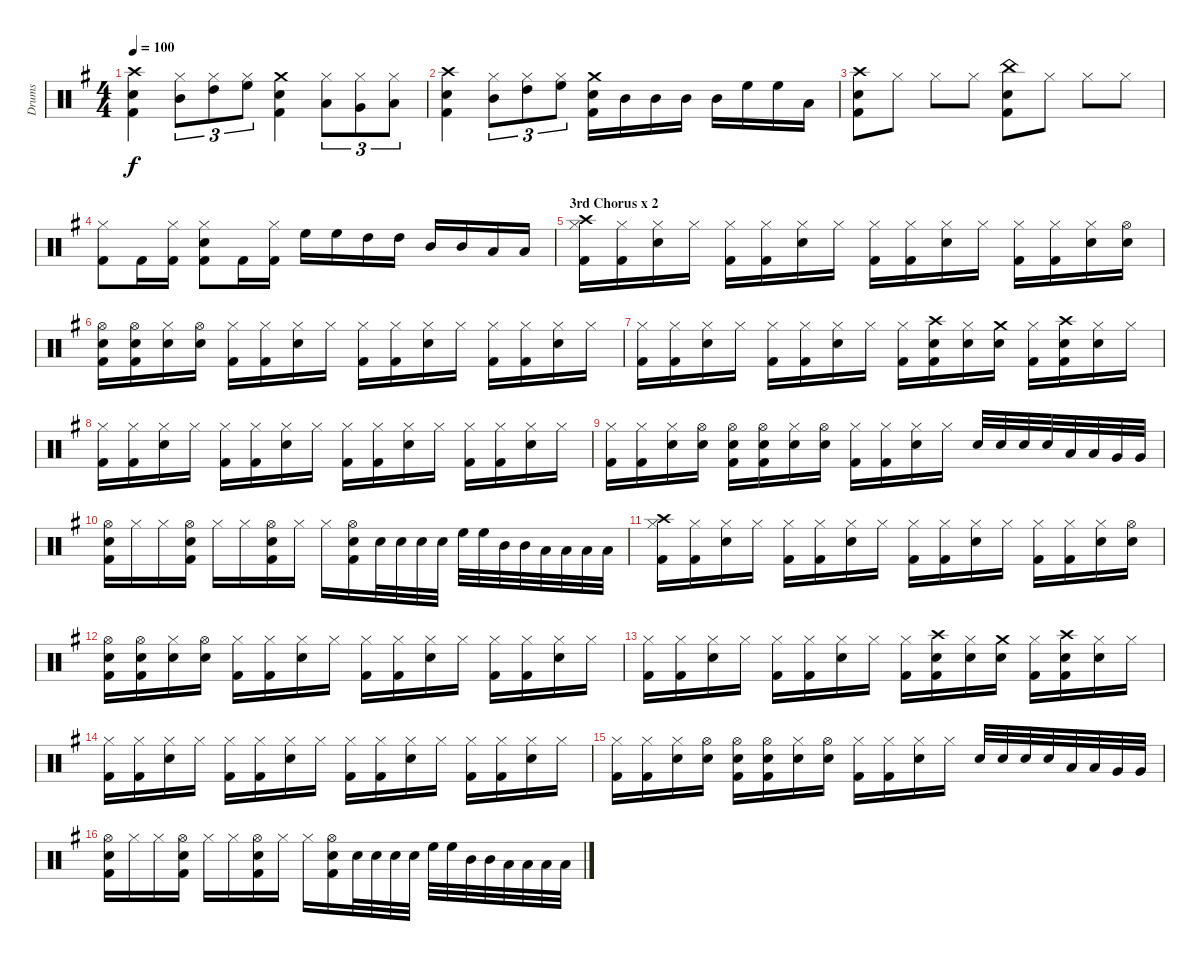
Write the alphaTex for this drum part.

\track ("Drums" "Drums") {instrument percussion}
\staff {score}
\articulation defaults
\ts (4 4)
\tempo 100
\clef neutral
\ks eminor
("Crash high (hit)" "Snare (hit) 2" "Kick (hit) 2").4{dy f} ("Hi-Hat (closed)" "Mid Tom (hit)").8{tu (3 2)} ("Hi-Hat (closed)" "High Tom (hit)").8{tu (3 2)} ("Hi-Hat (closed)" "High Floor Tom (hit)").8{tu (3 2)} ("Crash medium (hit)" "Snare (hit) 2" "Kick (hit) 2").4 ("Hi-Hat (closed)" "Low Floor Tom (hit)").8{tu (3 2)} ("Hi-Hat (closed)" "Very Low Tom (hit)").8{tu (3 2)} ("Hi-Hat (closed)" "Low Tom (hit)").8{tu (3 2)} |
("Crash high (hit)" "Snare (hit) 2" "Kick (hit) 2").4 ("Hi-Hat (closed)" "Mid Tom (hit)").8{tu (3 2)} ("Hi-Hat (closed)" "High Tom (hit)").8{tu (3 2)} ("Hi-Hat (closed)" "High Floor Tom (hit)").8{tu (3 2)} ("Crash medium (hit)" "Snare (hit) 2" "Kick (hit) 2").16 "Mid Tom (hit)".16 "Mid Tom (hit)".16 "Mid Tom (hit)".16 "Mid Tom (hit)".16 "High Floor Tom (hit)".16 "High Floor Tom (hit)".16 "Low Tom (hit)".16 |
("Crash high (hit)" "Snare (hit) 2" "Kick (hit) 2").8 "Hi-Hat (closed)".8 "Hi-Hat (closed)".8 "Hi-Hat (closed)".8 ("China (hit)" "Snare (hit) 2" "Kick (hit) 2").8 "Hi-Hat (closed)".8 "Hi-Hat (closed)".8 "Hi-Hat (closed)".8 |
("Hi-Hat (closed)" "Kick (hit) 2").8 "Kick (hit) 2".16 ("Hi-Hat (closed)" "Kick (hit) 2").16 ("Hi-Hat (closed)" "Kick (hit) 2" "Snare (hit) 2").8 "Kick (hit) 2".16 ("Hi-Hat (closed)" "Kick (hit) 2").16 "High Floor Tom (hit)".16 "High Floor Tom (hit)".16 "High Tom (hit)".16 "High Tom (hit)".16 "Mid Tom (hit)".16 "Mid Tom (hit)".16 "Low Tom (hit)".16 "Low Tom (hit)".16 |
\section ("" "3rd Chorus x 2")
("Hi-Hat (closed)" "Crash high (hit)" "Kick (hit) 2").16 ("Hi-Hat (closed)" "Kick (hit) 2").16 ("Hi-Hat (closed)" "Snare (hit) 2").16 "Hi-Hat (closed)".16 ("Hi-Hat (closed)" "Kick (hit) 2").16 ("Hi-Hat (closed)" "Kick (hit) 2").16 ("Hi-Hat (closed)" "Snare (hit) 2").16 "Hi-Hat (closed)".16 ("Hi-Hat (closed)" "Kick (hit) 2").16 ("Hi-Hat (closed)" "Kick (hit) 2").16 ("Hi-Hat (closed)" "Snare (hit) 2").16 "Hi-Hat (closed)".16 ("Hi-Hat (closed)" "Kick (hit) 2").16 ("Hi-Hat (closed)" "Kick (hit) 2").16 ("Hi-Hat (closed)" "Snare (hit) 2").16 ("Hi-Hat (open)" "Snare (hit) 2").16 |
("Hi-Hat (open)" "Snare (hit) 2" "Kick (hit) 2").16 ("Hi-Hat (open)" "Snare (hit) 2" "Kick (hit) 2").16 ("Hi-Hat (closed)" "Snare (hit) 2").16 ("Hi-Hat (open)" "Snare (hit) 2").16 ("Hi-Hat (closed)" "Kick (hit) 2").16 ("Hi-Hat (closed)" "Kick (hit) 2").16 ("Hi-Hat (closed)" "Snare (hit) 2").16 "Hi-Hat (closed)".16 ("Hi-Hat (closed)" "Kick (hit) 2").16 ("Hi-Hat (closed)" "Kick (hit) 2").16 ("Hi-Hat (closed)" "Snare (hit) 2").16 "Hi-Hat (closed)".16 ("Hi-Hat (closed)" "Kick (hit) 2").16 ("Hi-Hat (closed)" "Kick (hit) 2").16 ("Hi-Hat (closed)" "Snare (hit) 2").16 "Hi-Hat (closed)".16 |
("Hi-Hat (closed)" "Kick (hit) 2").16 ("Hi-Hat (closed)" "Kick (hit) 2").16 ("Hi-Hat (closed)" "Snare (hit) 2").16 "Hi-Hat (closed)".16 ("Hi-Hat (closed)" "Kick (hit) 2").16 ("Hi-Hat (closed)" "Kick (hit) 2").16 ("Hi-Hat (closed)" "Snare (hit) 2").16 "Hi-Hat (closed)".16 ("Hi-Hat (closed)" "Kick (hit) 2").16 ("Crash high (hit)" "Snare (hit) 2" "Kick (hit) 2").16 ("Hi-Hat (closed)" "Snare (hit) 2").16 ("Crash medium (hit)" "Snare (hit) 2").16 ("Hi-Hat (closed)" "Kick (hit) 2").16 ("Crash high (hit)" "Snare (hit) 2" "Kick (hit) 2").16 ("Hi-Hat (closed)" "Snare (hit) 2").16 "Hi-Hat (closed)".16 |
("Hi-Hat (closed)" "Kick (hit) 2").16 ("Hi-Hat (closed)" "Kick (hit) 2").16 ("Hi-Hat (closed)" "Snare (hit) 2").16 "Hi-Hat (closed)".16 ("Hi-Hat (closed)" "Kick (hit) 2").16 ("Hi-Hat (closed)" "Kick (hit) 2").16 ("Hi-Hat (closed)" "Snare (hit) 2").16 "Hi-Hat (closed)".16 ("Hi-Hat (closed)" "Kick (hit) 2").16 ("Hi-Hat (closed)" "Kick (hit) 2").16 ("Hi-Hat (closed)" "Snare (hit) 2").16 "Hi-Hat (closed)".16 ("Hi-Hat (closed)" "Kick (hit) 2").16 ("Hi-Hat (closed)" "Kick (hit) 2").16 ("Hi-Hat (closed)" "Snare (hit) 2").16 "Hi-Hat (closed)".16 |
("Hi-Hat (closed)" "Kick (hit) 2").16 ("Hi-Hat (closed)" "Kick (hit) 2").16 ("Hi-Hat (closed)" "Snare (hit) 2").16 ("Hi-Hat (open)" "Snare (hit) 2").16 ("Hi-Hat (open)" "Snare (hit) 2" "Kick (hit) 2").16 ("Hi-Hat (open)" "Snare (hit) 2" "Kick (hit) 2").16 ("Hi-Hat (closed)" "Snare (hit) 2").16 ("Hi-Hat (open)" "Snare (hit) 2").16 ("Hi-Hat (closed)" "Kick (hit) 2").16 ("Hi-Hat (closed)" "Kick (hit) 2").16 ("Hi-Hat (closed)" "Snare (hit) 2").16 "Hi-Hat (closed)".16 "Snare (hit) 2".32 "Snare (hit) 2".32 "Snare (hit) 2".32 "Snare (hit) 2".32 "Low Floor Tom (hit)".32 "Low Floor Tom (hit)".32 "Very Low Tom (hit)".32 "Very Low Tom (hit)".32 |
("Hi-Hat (open)" "Snare (hit) 2" "Kick (hit) 2").16 "Hi-Hat (closed)".16 "Hi-Hat (closed)".16 ("Hi-Hat (open)" "Snare (hit) 2" "Kick (hit) 2").16 "Hi-Hat (closed)".16 "Hi-Hat (closed)".16 ("Hi-Hat (open)" "Snare (hit) 2" "Kick (hit) 2").16 "Hi-Hat (closed)".16 "Hi-Hat (closed)".16 ("Hi-Hat (open)" "Snare (hit) 2" "Kick (hit) 2").16 "Snare (hit) 2".32 "Snare (hit) 2".32 "Snare (hit) 2".32 "Snare (hit) 2".32 "High Floor Tom (hit)".32 "High Floor Tom (hit)".32 "Mid Tom (hit)".32 "Mid Tom (hit)".32 "Low Tom (hit)".32 "Low Tom (hit)".32 "Low Floor Tom (hit)".32 "Low Floor Tom (hit)".32 |
("Hi-Hat (closed)" "Crash high (hit)" "Kick (hit) 2").16 ("Hi-Hat (closed)" "Kick (hit) 2").16 ("Hi-Hat (closed)" "Snare (hit) 2").16 "Hi-Hat (closed)".16 ("Hi-Hat (closed)" "Kick (hit) 2").16 ("Hi-Hat (closed)" "Kick (hit) 2").16 ("Hi-Hat (closed)" "Snare (hit) 2").16 "Hi-Hat (closed)".16 ("Hi-Hat (closed)" "Kick (hit) 2").16 ("Hi-Hat (closed)" "Kick (hit) 2").16 ("Hi-Hat (closed)" "Snare (hit) 2").16 "Hi-Hat (closed)".16 ("Hi-Hat (closed)" "Kick (hit) 2").16 ("Hi-Hat (closed)" "Kick (hit) 2").16 ("Hi-Hat (closed)" "Snare (hit) 2").16 ("Hi-Hat (open)" "Snare (hit) 2").16 |
("Hi-Hat (open)" "Snare (hit) 2" "Kick (hit) 2").16 ("Hi-Hat (open)" "Snare (hit) 2" "Kick (hit) 2").16 ("Hi-Hat (closed)" "Snare (hit) 2").16 ("Hi-Hat (open)" "Snare (hit) 2").16 ("Hi-Hat (closed)" "Kick (hit) 2").16 ("Hi-Hat (closed)" "Kick (hit) 2").16 ("Hi-Hat (closed)" "Snare (hit) 2").16 "Hi-Hat (closed)".16 ("Hi-Hat (closed)" "Kick (hit) 2").16 ("Hi-Hat (closed)" "Kick (hit) 2").16 ("Hi-Hat (closed)" "Snare (hit) 2").16 "Hi-Hat (closed)".16 ("Hi-Hat (closed)" "Kick (hit) 2").16 ("Hi-Hat (closed)" "Kick (hit) 2").16 ("Hi-Hat (closed)" "Snare (hit) 2").16 "Hi-Hat (closed)".16 |
("Hi-Hat (closed)" "Kick (hit) 2").16 ("Hi-Hat (closed)" "Kick (hit) 2").16 ("Hi-Hat (closed)" "Snare (hit) 2").16 "Hi-Hat (closed)".16 ("Hi-Hat (closed)" "Kick (hit) 2").16 ("Hi-Hat (closed)" "Kick (hit) 2").16 ("Hi-Hat (closed)" "Snare (hit) 2").16 "Hi-Hat (closed)".16 ("Hi-Hat (closed)" "Kick (hit) 2").16 ("Crash high (hit)" "Snare (hit) 2" "Kick (hit) 2").16 ("Hi-Hat (closed)" "Snare (hit) 2").16 ("Crash medium (hit)" "Snare (hit) 2").16 ("Hi-Hat (closed)" "Kick (hit) 2").16 ("Crash high (hit)" "Snare (hit) 2" "Kick (hit) 2").16 ("Hi-Hat (closed)" "Snare (hit) 2").16 "Hi-Hat (closed)".16 |
("Hi-Hat (closed)" "Kick (hit) 2").16 ("Hi-Hat (closed)" "Kick (hit) 2").16 ("Hi-Hat (closed)" "Snare (hit) 2").16 "Hi-Hat (closed)".16 ("Hi-Hat (closed)" "Kick (hit) 2").16 ("Hi-Hat (closed)" "Kick (hit) 2").16 ("Hi-Hat (closed)" "Snare (hit) 2").16 "Hi-Hat (closed)".16 ("Hi-Hat (closed)" "Kick (hit) 2").16 ("Hi-Hat (closed)" "Kick (hit) 2").16 ("Hi-Hat (closed)" "Snare (hit) 2").16 "Hi-Hat (closed)".16 ("Hi-Hat (closed)" "Kick (hit) 2").16 ("Hi-Hat (closed)" "Kick (hit) 2").16 ("Hi-Hat (closed)" "Snare (hit) 2").16 "Hi-Hat (closed)".16 |
("Hi-Hat (closed)" "Kick (hit) 2").16 ("Hi-Hat (closed)" "Kick (hit) 2").16 ("Hi-Hat (closed)" "Snare (hit) 2").16 ("Hi-Hat (open)" "Snare (hit) 2").16 ("Hi-Hat (open)" "Snare (hit) 2" "Kick (hit) 2").16 ("Hi-Hat (open)" "Snare (hit) 2" "Kick (hit) 2").16 ("Hi-Hat (closed)" "Snare (hit) 2").16 ("Hi-Hat (open)" "Snare (hit) 2").16 ("Hi-Hat (closed)" "Kick (hit) 2").16 ("Hi-Hat (closed)" "Kick (hit) 2").16 ("Hi-Hat (closed)" "Snare (hit) 2").16 "Hi-Hat (closed)".16 "Snare (hit) 2".32 "Snare (hit) 2".32 "Snare (hit) 2".32 "Snare (hit) 2".32 "Low Floor Tom (hit)".32 "Low Floor Tom (hit)".32 "Very Low Tom (hit)".32 "Very Low Tom (hit)".32 |
("Hi-Hat (open)" "Snare (hit) 2" "Kick (hit) 2").16 "Hi-Hat (closed)".16 "Hi-Hat (closed)".16 ("Hi-Hat (open)" "Snare (hit) 2" "Kick (hit) 2").16 "Hi-Hat (closed)".16 "Hi-Hat (closed)".16 ("Hi-Hat (open)" "Snare (hit) 2" "Kick (hit) 2").16 "Hi-Hat (closed)".16 "Hi-Hat (closed)".16 ("Hi-Hat (open)" "Snare (hit) 2" "Kick (hit) 2").16 "Snare (hit) 2".32 "Snare (hit) 2".32 "Snare (hit) 2".32 "Snare (hit) 2".32 "High Floor Tom (hit)".32 "High Floor Tom (hit)".32 "Mid Tom (hit)".32 "Mid Tom (hit)".32 "Low Tom (hit)".32 "Low Tom (hit)".32 "Low Floor Tom (hit)".32 "Low Floor Tom (hit)".32
